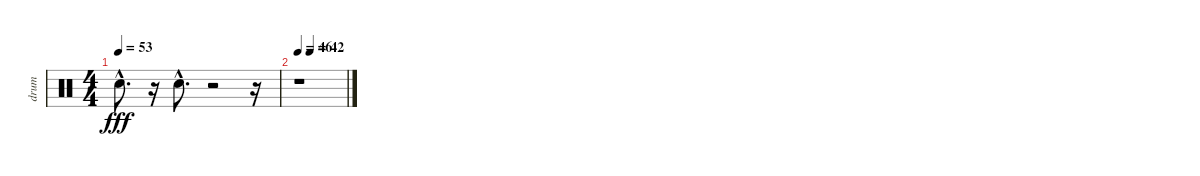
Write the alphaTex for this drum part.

\track ("drum" "drum") {instrument percussion}
\staff {score}
\articulation defaults
\ts (4 4)
\tempo 53
\clef neutral
\ks c "Electric Snare (hit)"{hac}.8{d dy fff}
r.16 "Snare (hit) 2"{hac}.8{d} r.2 r.16 |
\tempo 46
\tempo (42 0.25)
r.1
